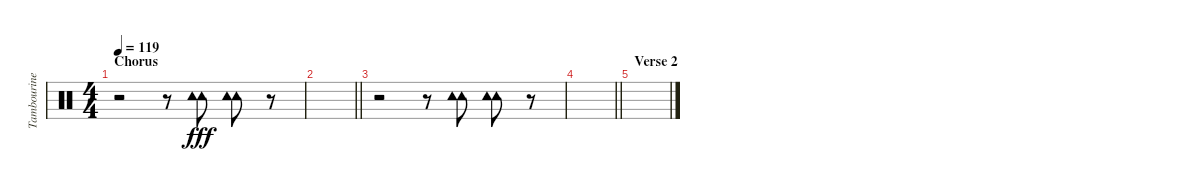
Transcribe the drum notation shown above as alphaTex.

\track ("Tambourine (John Lennon)" "Tambourine") {instrument percussion}
\staff {score}
\articulation defaults
\ts (4 4)
\section ("" "Chorus")
\tempo 119
\clef neutral
\ks c
r.2{dy fff} r.8 ("Tambourine (hit)" "Tambourine (hit)").8{bd 60} ("Tambourine (hit)" "Tambourine (hit)").8{bd 60} r.8 |
\barLineRight lightlight
|
r.2 r.8 ("Tambourine (hit)" "Tambourine (hit)").8{bd 60} ("Tambourine (hit)" "Tambourine (hit)").8{bd 60} r.8 |
\barLineRight lightlight
|
\section ("" "Verse 2")
